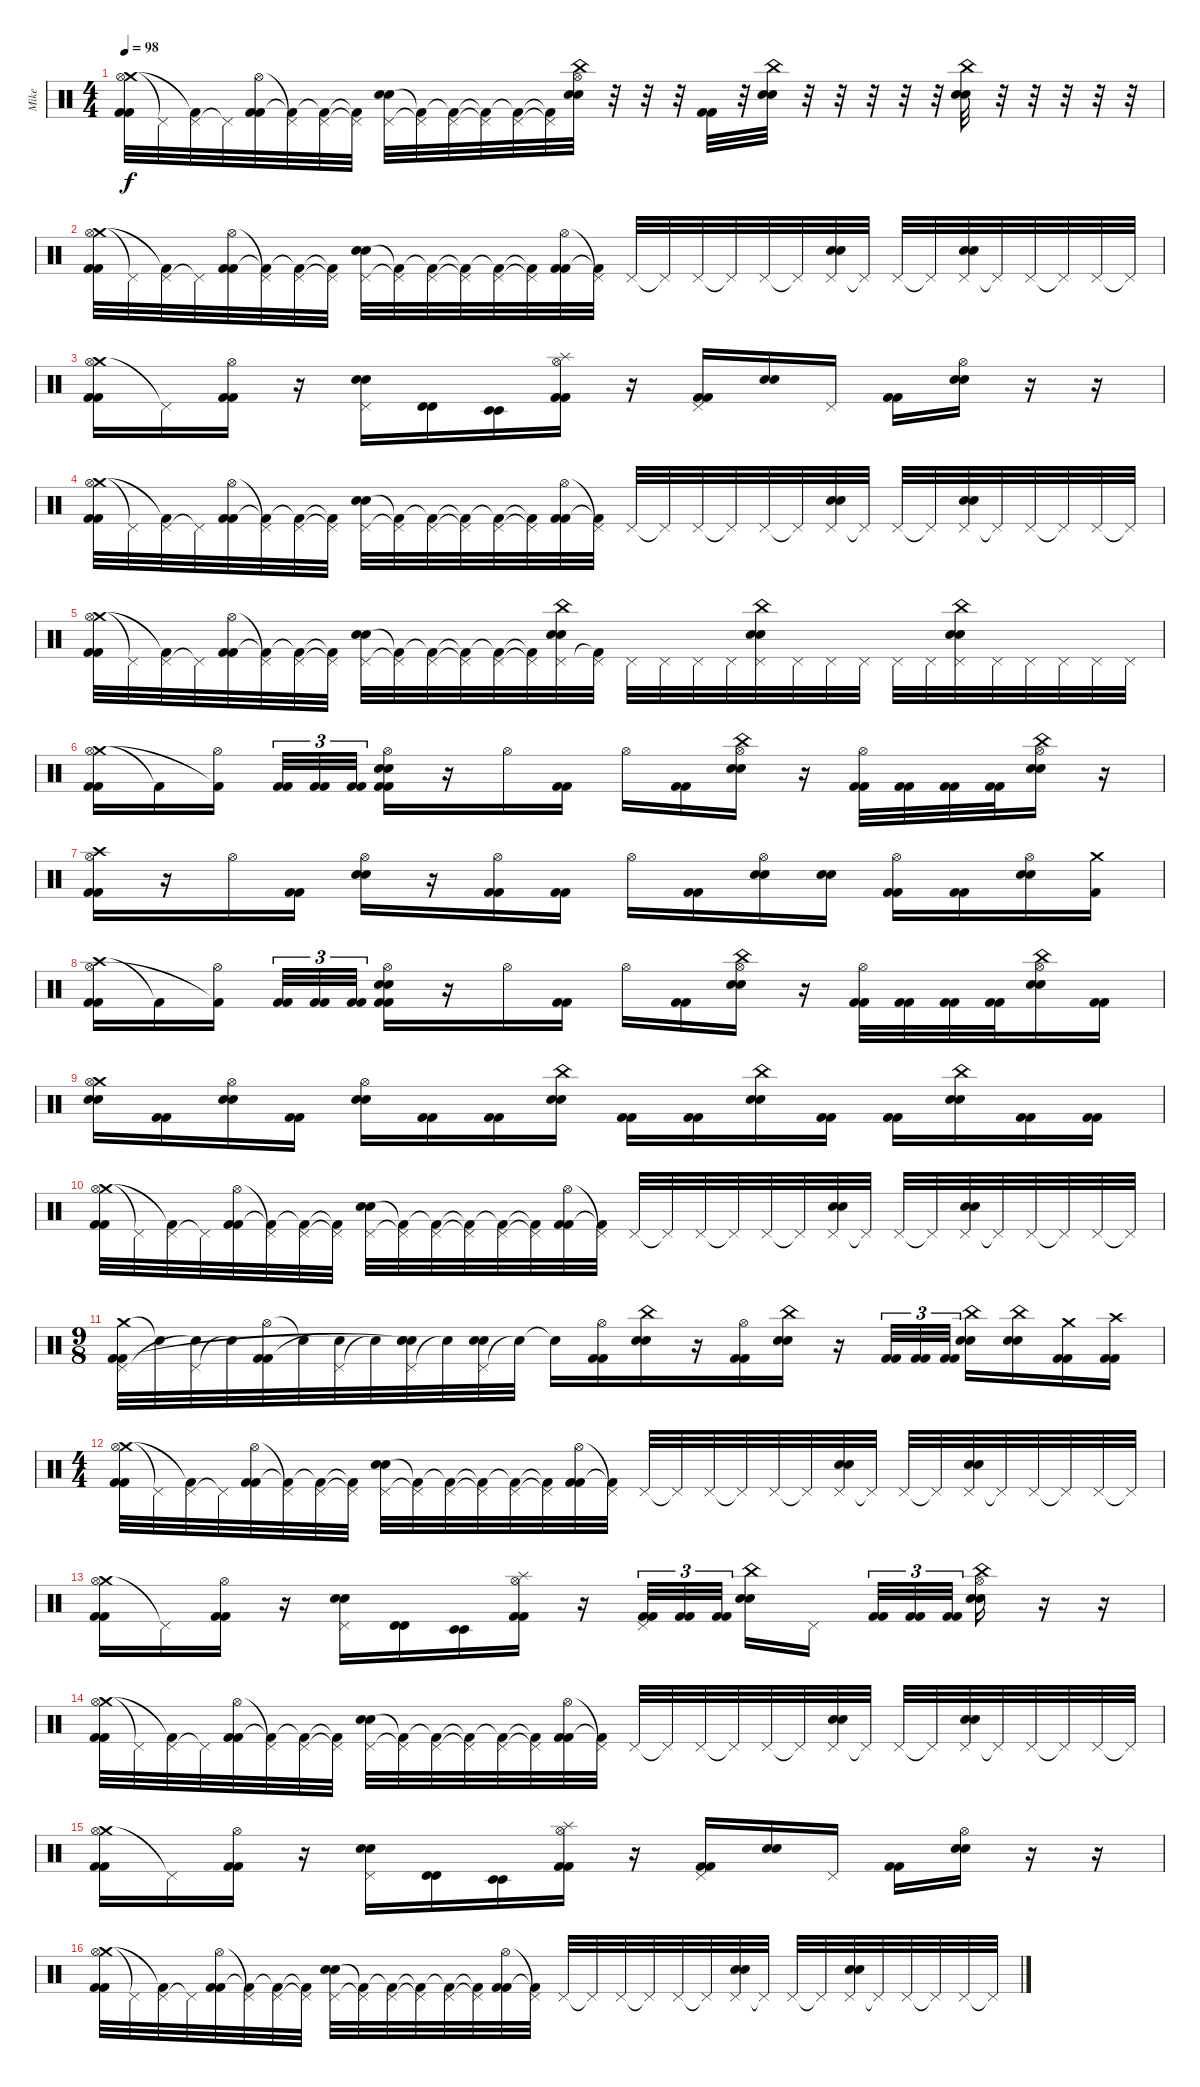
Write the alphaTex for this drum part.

\track ("Mike" "Mike") {instrument percussion}
\staff {score}
\articulation defaults
\ts (4 4)
\tempo 98
\clef neutral
\ks c
("Crash medium (hit)" "Hi-Hat (open)" "Kick (hit) 2" "Kick (hit) 2").32{dy f} "Pedal Hi-Hat (hit)"{t}.32 ("Pedal Hi-Hat (hit)" "Kick (hit) 2"{t}).32 "Pedal Hi-Hat (hit)"{t}.32 ("Hi-Hat (open)" "Kick (hit) 2" "Kick (hit) 2").32 ("Pedal Hi-Hat (hit)"{t} "Kick (hit) 2"{t}).32 ("Pedal Hi-Hat (hit)" "Kick (hit) 2"{t}).32 ("Pedal Hi-Hat (hit)"{t} "Kick (hit) 2"{t}).32 ("Pedal Hi-Hat (hit)" "Electric Snare (hit)" "Electric Snare (hit)").32 ("Pedal Hi-Hat (hit)"{t} "Kick (hit) 2"{t}).32 ("Pedal Hi-Hat (hit)" "Kick (hit) 2"{t}).32 ("Pedal Hi-Hat (hit)"{t} "Kick (hit) 2"{t}).32 ("Pedal Hi-Hat (hit)" "Kick (hit) 2"{t}).32 ("Pedal Hi-Hat (hit)"{t} "Kick (hit) 2"{t}).32 ("China (hit)" "Hi-Hat (open)" "Electric Snare (hit)" "Electric Snare (hit)").32 r.32 r.32 r.32 ("Kick (hit) 2" "Kick (hit) 2").32 r.32 ("China (hit)" "Electric Snare (hit)" "Electric Snare (hit)").32 r.32 r.32 r.32 r.32 r.32 ("China (hit)" "Electric Snare (hit)" "Electric Snare (hit)").32 r.32 r.32 r.32 r.32 r.32 |
("Crash medium (hit)" "Hi-Hat (open)" "Kick (hit) 2" "Kick (hit) 2").32 "Pedal Hi-Hat (hit)"{t}.32 ("Pedal Hi-Hat (hit)" "Kick (hit) 2"{t}).32 "Pedal Hi-Hat (hit)"{t}.32 ("Hi-Hat (open)" "Kick (hit) 2" "Kick (hit) 2").32 ("Pedal Hi-Hat (hit)"{t} "Kick (hit) 2"{t}).32 ("Pedal Hi-Hat (hit)" "Kick (hit) 2"{t}).32 ("Pedal Hi-Hat (hit)"{t} "Kick (hit) 2"{t}).32 ("Pedal Hi-Hat (hit)" "Electric Snare (hit)" "Electric Snare (hit)").32 ("Pedal Hi-Hat (hit)"{t} "Kick (hit) 2"{t}).32 ("Pedal Hi-Hat (hit)" "Kick (hit) 2"{t}).32 ("Pedal Hi-Hat (hit)"{t} "Kick (hit) 2"{t}).32 ("Pedal Hi-Hat (hit)" "Kick (hit) 2"{t}).32 ("Pedal Hi-Hat (hit)"{t} "Kick (hit) 2"{t}).32 ("Hi-Hat (open)" "Kick (hit) 2" "Kick (hit) 2").32 ("Pedal Hi-Hat (hit)"{t} "Kick (hit) 2"{t}).32 "Pedal Hi-Hat (hit)".32 "Pedal Hi-Hat (hit)"{t}.32 "Pedal Hi-Hat (hit)".32 "Pedal Hi-Hat (hit)"{t}.32 "Pedal Hi-Hat (hit)".32 "Pedal Hi-Hat (hit)"{t}.32 ("Pedal Hi-Hat (hit)" "Electric Snare (hit)" "Electric Snare (hit)").32 "Pedal Hi-Hat (hit)"{t}.32 "Pedal Hi-Hat (hit)".32 "Pedal Hi-Hat (hit)"{t}.32 ("Pedal Hi-Hat (hit)" "Electric Snare (hit)" "Electric Snare (hit)").32 "Pedal Hi-Hat (hit)"{t}.32 "Pedal Hi-Hat (hit)".32 "Pedal Hi-Hat (hit)"{t}.32 "Pedal Hi-Hat (hit)".32 "Pedal Hi-Hat (hit)"{t}.32 |
("Crash medium (hit)" "Hi-Hat (open)" "Kick (hit) 2" "Kick (hit) 2").16 "Pedal Hi-Hat (hit)"{t}.16 ("Hi-Hat (open)" "Kick (hit) 2" "Kick (hit) 2").16 r.16 ("Pedal Hi-Hat (hit)" "Electric Snare (hit)" "Electric Snare (hit)").16 ("Timbale high (hit)" "Timbale high (hit)").16 ("Timbale low (hit)" "Timbale low (hit)").16 ("Splash (hit)" "Hi-Hat (open)" "Kick (hit) 2" "Kick (hit) 2").16 r.16 ("Pedal Hi-Hat (hit)" "Kick (hit) 2" "Kick (hit) 2").16 ("Electric Snare (hit)" "Electric Snare (hit)").16 "Pedal Hi-Hat (hit)".16 ("Kick (hit) 2" "Kick (hit) 2").16 ("Hi-Hat (open)" "Electric Snare (hit)" "Electric Snare (hit)").16 r.16 r.16 |
("Crash medium (hit)" "Hi-Hat (open)" "Kick (hit) 2" "Kick (hit) 2").32 "Pedal Hi-Hat (hit)"{t}.32 ("Pedal Hi-Hat (hit)" "Kick (hit) 2"{t}).32 "Pedal Hi-Hat (hit)"{t}.32 ("Hi-Hat (open)" "Kick (hit) 2" "Kick (hit) 2").32 ("Pedal Hi-Hat (hit)"{t} "Kick (hit) 2"{t}).32 ("Pedal Hi-Hat (hit)" "Kick (hit) 2"{t}).32 ("Pedal Hi-Hat (hit)"{t} "Kick (hit) 2"{t}).32 ("Pedal Hi-Hat (hit)" "Electric Snare (hit)" "Electric Snare (hit)").32 ("Pedal Hi-Hat (hit)"{t} "Kick (hit) 2"{t}).32 ("Pedal Hi-Hat (hit)" "Kick (hit) 2"{t}).32 ("Pedal Hi-Hat (hit)"{t} "Kick (hit) 2"{t}).32 ("Pedal Hi-Hat (hit)" "Kick (hit) 2"{t}).32 ("Pedal Hi-Hat (hit)"{t} "Kick (hit) 2"{t}).32 ("Hi-Hat (open)" "Kick (hit) 2" "Kick (hit) 2").32 ("Pedal Hi-Hat (hit)"{t} "Kick (hit) 2"{t}).32 "Pedal Hi-Hat (hit)".32 "Pedal Hi-Hat (hit)"{t}.32 "Pedal Hi-Hat (hit)".32 "Pedal Hi-Hat (hit)"{t}.32 "Pedal Hi-Hat (hit)".32 "Pedal Hi-Hat (hit)"{t}.32 ("Pedal Hi-Hat (hit)" "Electric Snare (hit)" "Electric Snare (hit)").32 "Pedal Hi-Hat (hit)"{t}.32 "Pedal Hi-Hat (hit)".32 "Pedal Hi-Hat (hit)"{t}.32 ("Pedal Hi-Hat (hit)" "Electric Snare (hit)" "Electric Snare (hit)").32 "Pedal Hi-Hat (hit)"{t}.32 "Pedal Hi-Hat (hit)".32 "Pedal Hi-Hat (hit)"{t}.32 "Pedal Hi-Hat (hit)".32 "Pedal Hi-Hat (hit)"{t}.32 |
("Crash medium (hit)" "Hi-Hat (open)" "Kick (hit) 2" "Kick (hit) 2").32 "Pedal Hi-Hat (hit)"{t}.32 ("Pedal Hi-Hat (hit)" "Kick (hit) 2"{t}).32 "Pedal Hi-Hat (hit)"{t}.32 ("Hi-Hat (open)" "Kick (hit) 2" "Kick (hit) 2").32 ("Pedal Hi-Hat (hit)"{t} "Kick (hit) 2"{t}).32 ("Pedal Hi-Hat (hit)" "Kick (hit) 2"{t}).32 ("Pedal Hi-Hat (hit)"{t} "Kick (hit) 2"{t}).32 ("Pedal Hi-Hat (hit)" "Electric Snare (hit)" "Electric Snare (hit)").32 ("Pedal Hi-Hat (hit)"{t} "Kick (hit) 2"{t}).32 ("Pedal Hi-Hat (hit)" "Kick (hit) 2"{t}).32 ("Pedal Hi-Hat (hit)"{t} "Kick (hit) 2"{t}).32 ("Pedal Hi-Hat (hit)" "Kick (hit) 2"{t}).32 ("Pedal Hi-Hat (hit)"{t} "Kick (hit) 2"{t}).32 ("China (hit)" "Pedal Hi-Hat (hit)" "Electric Snare (hit)" "Electric Snare (hit)").32 ("Pedal Hi-Hat (hit)" "Kick (hit) 2"{t}).32 "Pedal Hi-Hat (hit)".32 "Pedal Hi-Hat (hit)".32 "Pedal Hi-Hat (hit)".32 "Pedal Hi-Hat (hit)".32 ("China (hit)" "Pedal Hi-Hat (hit)" "Electric Snare (hit)" "Electric Snare (hit)").32 "Pedal Hi-Hat (hit)".32 "Pedal Hi-Hat (hit)".32 "Pedal Hi-Hat (hit)".32 "Pedal Hi-Hat (hit)".32 "Pedal Hi-Hat (hit)".32 ("China (hit)" "Pedal Hi-Hat (hit)" "Electric Snare (hit)" "Electric Snare (hit)").32 "Pedal Hi-Hat (hit)".32 "Pedal Hi-Hat (hit)".32 "Pedal Hi-Hat (hit)".32 "Pedal Hi-Hat (hit)".32 "Pedal Hi-Hat (hit)".32 |
("Crash medium (hit)" "Hi-Hat (open)" "Kick (hit) 2" "Kick (hit) 2").16 "Kick (hit) 2"{t}.16 ("Hi-Hat (open)" "Kick (hit) 2"{t}).16 ("Kick (hit) 2" "Kick (hit) 2").32{tu (3 2)} ("Kick (hit) 2" "Kick (hit) 2").32{tu (3 2)} ("Kick (hit) 2" "Kick (hit) 2").32{tu (3 2)} ("Hi-Hat (open)" "Electric Snare (hit)" "Electric Snare (hit)" "Kick (hit) 2" "Kick (hit) 2").16 r.16 "Hi-Hat (open)".16 ("Kick (hit) 2" "Kick (hit) 2").16 "Hi-Hat (open)".16 ("Kick (hit) 2" "Kick (hit) 2").16 ("China (hit)" "Hi-Hat (open)" "Electric Snare (hit)" "Electric Snare (hit)").16 r.16 ("Hi-Hat (open)" "Kick (hit) 2" "Kick (hit) 2").32 ("Kick (hit) 2" "Kick (hit) 2").32 ("Kick (hit) 2" "Kick (hit) 2").32 ("Kick (hit) 2" "Kick (hit) 2").32 ("China (hit)" "Hi-Hat (open)" "Electric Snare (hit)" "Electric Snare (hit)").16 r.16 |
("Crash high (hit)" "Hi-Hat (open)" "Kick (hit) 2" "Kick (hit) 2").16 r.16 "Hi-Hat (open)".16 ("Kick (hit) 2" "Kick (hit) 2").16 ("Hi-Hat (open)" "Electric Snare (hit)" "Electric Snare (hit)").16 r.16 ("Hi-Hat (open)" "Kick (hit) 2" "Kick (hit) 2").16 ("Kick (hit) 2" "Kick (hit) 2").16 "Hi-Hat (open)".16 ("Kick (hit) 2" "Kick (hit) 2").16 ("Hi-Hat (open)" "Electric Snare (hit)" "Electric Snare (hit)").16 ("Electric Snare (hit)" "Electric Snare (hit)").16 ("Hi-Hat (open)" "Kick (hit) 2" "Kick (hit) 2").16 ("Kick (hit) 2" "Kick (hit) 2").16 ("Hi-Hat (open)" "Electric Snare (hit)" "Electric Snare (hit)").16 ("Crash medium (hit)" "Kick (hit) 2").16 |
("Crash high (hit)" "Hi-Hat (open)" "Kick (hit) 2" "Kick (hit) 2").16 "Kick (hit) 2"{t}.16 ("Hi-Hat (open)" "Kick (hit) 2"{t}).16 ("Kick (hit) 2" "Kick (hit) 2").32{tu (3 2)} ("Kick (hit) 2" "Kick (hit) 2").32{tu (3 2)} ("Kick (hit) 2" "Kick (hit) 2").32{tu (3 2)} ("Hi-Hat (open)" "Electric Snare (hit)" "Electric Snare (hit)" "Kick (hit) 2" "Kick (hit) 2").16 r.16 "Hi-Hat (open)".16 ("Kick (hit) 2" "Kick (hit) 2").16 "Hi-Hat (open)".16 ("Kick (hit) 2" "Kick (hit) 2").16 ("China (hit)" "Hi-Hat (open)" "Electric Snare (hit)" "Electric Snare (hit)").16 r.16 ("Hi-Hat (open)" "Kick (hit) 2" "Kick (hit) 2").32 ("Kick (hit) 2" "Kick (hit) 2").32 ("Kick (hit) 2" "Kick (hit) 2").32 ("Kick (hit) 2" "Kick (hit) 2").32 ("China (hit)" "Hi-Hat (open)" "Electric Snare (hit)" "Electric Snare (hit)").16 ("Kick (hit) 2" "Kick (hit) 2").16 |
("Crash medium (hit)" "Hi-Hat (open)" "Electric Snare (hit)" "Electric Snare (hit)").16 ("Kick (hit) 2" "Kick (hit) 2").16 ("Hi-Hat (open)" "Electric Snare (hit)" "Electric Snare (hit)").16 ("Kick (hit) 2" "Kick (hit) 2").16 ("Hi-Hat (open)" "Electric Snare (hit)" "Electric Snare (hit)").16 ("Kick (hit) 2" "Kick (hit) 2").16 ("Kick (hit) 2" "Kick (hit) 2").16 ("China (hit)" "Electric Snare (hit)" "Electric Snare (hit)").16 ("Kick (hit) 2" "Kick (hit) 2").16 ("Kick (hit) 2" "Kick (hit) 2").16 ("China (hit)" "Electric Snare (hit)" "Electric Snare (hit)").16 ("Kick (hit) 2" "Kick (hit) 2").16 ("Kick (hit) 2" "Kick (hit) 2").16 ("China (hit)" "Electric Snare (hit)" "Electric Snare (hit)").16 ("Kick (hit) 2" "Kick (hit) 2").16 ("Kick (hit) 2" "Kick (hit) 2").16 |
("Crash medium (hit)" "Hi-Hat (open)" "Kick (hit) 2" "Kick (hit) 2").32 "Pedal Hi-Hat (hit)"{t}.32 ("Pedal Hi-Hat (hit)" "Kick (hit) 2"{t}).32 "Pedal Hi-Hat (hit)"{t}.32 ("Hi-Hat (open)" "Kick (hit) 2" "Kick (hit) 2").32 ("Pedal Hi-Hat (hit)"{t} "Kick (hit) 2"{t}).32 ("Pedal Hi-Hat (hit)" "Kick (hit) 2"{t}).32 ("Pedal Hi-Hat (hit)"{t} "Kick (hit) 2"{t}).32 ("Pedal Hi-Hat (hit)" "Electric Snare (hit)" "Electric Snare (hit)").32 ("Pedal Hi-Hat (hit)"{t} "Kick (hit) 2"{t}).32 ("Pedal Hi-Hat (hit)" "Kick (hit) 2"{t}).32 ("Pedal Hi-Hat (hit)"{t} "Kick (hit) 2"{t}).32 ("Pedal Hi-Hat (hit)" "Kick (hit) 2"{t}).32 ("Pedal Hi-Hat (hit)"{t} "Kick (hit) 2"{t}).32 ("Hi-Hat (open)" "Kick (hit) 2" "Kick (hit) 2").32 ("Pedal Hi-Hat (hit)"{t} "Kick (hit) 2"{t}).32 "Pedal Hi-Hat (hit)".32 "Pedal Hi-Hat (hit)"{t}.32 "Pedal Hi-Hat (hit)".32 "Pedal Hi-Hat (hit)"{t}.32 "Pedal Hi-Hat (hit)".32 "Pedal Hi-Hat (hit)"{t}.32 ("Pedal Hi-Hat (hit)" "Electric Snare (hit)" "Electric Snare (hit)").32 "Pedal Hi-Hat (hit)"{t}.32 "Pedal Hi-Hat (hit)".32 "Pedal Hi-Hat (hit)"{t}.32 ("Pedal Hi-Hat (hit)" "Electric Snare (hit)" "Electric Snare (hit)").32 "Pedal Hi-Hat (hit)"{t}.32 "Pedal Hi-Hat (hit)".32 "Pedal Hi-Hat (hit)"{t}.32 "Pedal Hi-Hat (hit)".32 "Pedal Hi-Hat (hit)"{t}.32 |
\ts (9 8)
("Crash medium (hit)" "Pedal Hi-Hat (hit)" "Kick (hit) 2" "Kick (hit) 2").32 "Snare (hit)"{t}.32 ("Pedal Hi-Hat (hit)" "Snare (hit)"{t}).32 "Snare (hit)"{t}.32 ("Hi-Hat (open)" "Kick (hit) 2" "Kick (hit) 2").32 "Snare (hit)"{t}.32 ("Pedal Hi-Hat (hit)" "Snare (hit)"{t}).32 "Snare (hit)"{t}.32 ("Pedal Hi-Hat (hit)" "Electric Snare (hit)" "Electric Snare (hit)" "Snare (hit)"{t}).32 "Electric Snare (hit)"{t}.32 ("Pedal Hi-Hat (hit)" "Electric Snare (hit)" "Electric Snare (hit)").32 "Snare (hit)"{t}.32 "Snare (hit)"{t}.16 ("Hi-Hat (open)" "Kick (hit) 2" "Kick (hit) 2").16 ("China (hit)" "Electric Snare (hit)" "Electric Snare (hit)").16 r.16 ("Hi-Hat (open)" "Kick (hit) 2" "Kick (hit) 2").16 ("China (hit)" "Electric Snare (hit)" "Electric Snare (hit)").16 r.16 ("Kick (hit) 2" "Kick (hit) 2").32{tu (3 2)} ("Kick (hit) 2" "Kick (hit) 2").32{tu (3 2)} ("Kick (hit) 2" "Kick (hit) 2").32{tu (3 2)} ("China (hit)" "Electric Snare (hit)" "Electric Snare (hit)").16 ("China (hit)" "Electric Snare (hit)" "Electric Snare (hit)").16 ("Crash medium (hit)" "Kick (hit) 2" "Kick (hit) 2").16 ("Crash high (hit)" "Kick (hit) 2" "Kick (hit) 2").16 |
\ts (4 4)
("Crash medium (hit)" "Hi-Hat (open)" "Kick (hit) 2" "Kick (hit) 2").32 "Pedal Hi-Hat (hit)"{t}.32 ("Pedal Hi-Hat (hit)" "Kick (hit) 2"{t}).32 "Pedal Hi-Hat (hit)"{t}.32 ("Hi-Hat (open)" "Kick (hit) 2" "Kick (hit) 2").32 ("Pedal Hi-Hat (hit)"{t} "Kick (hit) 2"{t}).32 ("Pedal Hi-Hat (hit)" "Kick (hit) 2"{t}).32 ("Pedal Hi-Hat (hit)"{t} "Kick (hit) 2"{t}).32 ("Pedal Hi-Hat (hit)" "Electric Snare (hit)" "Electric Snare (hit)").32 ("Pedal Hi-Hat (hit)"{t} "Kick (hit) 2"{t}).32 ("Pedal Hi-Hat (hit)" "Kick (hit) 2"{t}).32 ("Pedal Hi-Hat (hit)"{t} "Kick (hit) 2"{t}).32 ("Pedal Hi-Hat (hit)" "Kick (hit) 2"{t}).32 ("Pedal Hi-Hat (hit)"{t} "Kick (hit) 2"{t}).32 ("Hi-Hat (open)" "Kick (hit) 2" "Kick (hit) 2").32 ("Pedal Hi-Hat (hit)"{t} "Kick (hit) 2"{t}).32 "Pedal Hi-Hat (hit)".32 "Pedal Hi-Hat (hit)"{t}.32 "Pedal Hi-Hat (hit)".32 "Pedal Hi-Hat (hit)"{t}.32 "Pedal Hi-Hat (hit)".32 "Pedal Hi-Hat (hit)"{t}.32 ("Pedal Hi-Hat (hit)" "Electric Snare (hit)" "Electric Snare (hit)").32 "Pedal Hi-Hat (hit)"{t}.32 "Pedal Hi-Hat (hit)".32 "Pedal Hi-Hat (hit)"{t}.32 ("Pedal Hi-Hat (hit)" "Electric Snare (hit)" "Electric Snare (hit)").32 "Pedal Hi-Hat (hit)"{t}.32 "Pedal Hi-Hat (hit)".32 "Pedal Hi-Hat (hit)"{t}.32 "Pedal Hi-Hat (hit)".32 "Pedal Hi-Hat (hit)"{t}.32 |
("Crash medium (hit)" "Hi-Hat (open)" "Kick (hit) 2" "Kick (hit) 2").16 "Pedal Hi-Hat (hit)"{t}.16 ("Hi-Hat (open)" "Kick (hit) 2" "Kick (hit) 2").16 r.16 ("Pedal Hi-Hat (hit)" "Electric Snare (hit)" "Electric Snare (hit)").16 ("Timbale high (hit)" "Timbale high (hit)").16 ("Timbale low (hit)" "Timbale low (hit)").16 ("Splash (hit)" "Hi-Hat (open)" "Kick (hit) 2" "Kick (hit) 2").16 r.16 ("Pedal Hi-Hat (hit)" "Kick (hit) 2" "Kick (hit) 2").32{tu (3 2)} ("Kick (hit) 2" "Kick (hit) 2").32{tu (3 2)} ("Kick (hit) 2" "Kick (hit) 2").32{tu (3 2)} ("China (hit)" "Electric Snare (hit)" "Electric Snare (hit)").16 "Pedal Hi-Hat (hit)".16 ("Kick (hit) 2" "Kick (hit) 2").32{tu (3 2)} ("Kick (hit) 2" "Kick (hit) 2").32{tu (3 2)} ("Kick (hit) 2" "Kick (hit) 2").32{tu (3 2)} ("China (hit)" "Hi-Hat (open)" "Electric Snare (hit)" "Electric Snare (hit)").16 r.16 r.16 |
("Crash medium (hit)" "Hi-Hat (open)" "Kick (hit) 2" "Kick (hit) 2").32 "Pedal Hi-Hat (hit)"{t}.32 ("Pedal Hi-Hat (hit)" "Kick (hit) 2"{t}).32 "Pedal Hi-Hat (hit)"{t}.32 ("Hi-Hat (open)" "Kick (hit) 2" "Kick (hit) 2").32 ("Pedal Hi-Hat (hit)"{t} "Kick (hit) 2"{t}).32 ("Pedal Hi-Hat (hit)" "Kick (hit) 2"{t}).32 ("Pedal Hi-Hat (hit)"{t} "Kick (hit) 2"{t}).32 ("Pedal Hi-Hat (hit)" "Electric Snare (hit)" "Electric Snare (hit)").32 ("Pedal Hi-Hat (hit)"{t} "Kick (hit) 2"{t}).32 ("Pedal Hi-Hat (hit)" "Kick (hit) 2"{t}).32 ("Pedal Hi-Hat (hit)"{t} "Kick (hit) 2"{t}).32 ("Pedal Hi-Hat (hit)" "Kick (hit) 2"{t}).32 ("Pedal Hi-Hat (hit)"{t} "Kick (hit) 2"{t}).32 ("Hi-Hat (open)" "Kick (hit) 2" "Kick (hit) 2").32 ("Pedal Hi-Hat (hit)"{t} "Kick (hit) 2"{t}).32 "Pedal Hi-Hat (hit)".32 "Pedal Hi-Hat (hit)"{t}.32 "Pedal Hi-Hat (hit)".32 "Pedal Hi-Hat (hit)"{t}.32 "Pedal Hi-Hat (hit)".32 "Pedal Hi-Hat (hit)"{t}.32 ("Pedal Hi-Hat (hit)" "Electric Snare (hit)" "Electric Snare (hit)").32 "Pedal Hi-Hat (hit)"{t}.32 "Pedal Hi-Hat (hit)".32 "Pedal Hi-Hat (hit)"{t}.32 ("Pedal Hi-Hat (hit)" "Electric Snare (hit)" "Electric Snare (hit)").32 "Pedal Hi-Hat (hit)"{t}.32 "Pedal Hi-Hat (hit)".32 "Pedal Hi-Hat (hit)"{t}.32 "Pedal Hi-Hat (hit)".32 "Pedal Hi-Hat (hit)"{t}.32 |
("Crash medium (hit)" "Hi-Hat (open)" "Kick (hit) 2" "Kick (hit) 2").16 "Pedal Hi-Hat (hit)"{t}.16 ("Hi-Hat (open)" "Kick (hit) 2" "Kick (hit) 2").16 r.16 ("Pedal Hi-Hat (hit)" "Electric Snare (hit)" "Electric Snare (hit)").16 ("Timbale high (hit)" "Timbale high (hit)").16 ("Timbale low (hit)" "Timbale low (hit)").16 ("Splash (hit)" "Hi-Hat (open)" "Kick (hit) 2" "Kick (hit) 2").16 r.16 ("Pedal Hi-Hat (hit)" "Kick (hit) 2" "Kick (hit) 2").16 ("Electric Snare (hit)" "Electric Snare (hit)").16 "Pedal Hi-Hat (hit)".16 ("Kick (hit) 2" "Kick (hit) 2").16 ("Hi-Hat (open)" "Electric Snare (hit)" "Electric Snare (hit)").16 r.16 r.16 |
("Crash medium (hit)" "Hi-Hat (open)" "Kick (hit) 2" "Kick (hit) 2").32 "Pedal Hi-Hat (hit)"{t}.32 ("Pedal Hi-Hat (hit)" "Kick (hit) 2"{t}).32 "Pedal Hi-Hat (hit)"{t}.32 ("Hi-Hat (open)" "Kick (hit) 2" "Kick (hit) 2").32 ("Pedal Hi-Hat (hit)"{t} "Kick (hit) 2"{t}).32 ("Pedal Hi-Hat (hit)" "Kick (hit) 2"{t}).32 ("Pedal Hi-Hat (hit)"{t} "Kick (hit) 2"{t}).32 ("Pedal Hi-Hat (hit)" "Electric Snare (hit)" "Electric Snare (hit)").32 ("Pedal Hi-Hat (hit)"{t} "Kick (hit) 2"{t}).32 ("Pedal Hi-Hat (hit)" "Kick (hit) 2"{t}).32 ("Pedal Hi-Hat (hit)"{t} "Kick (hit) 2"{t}).32 ("Pedal Hi-Hat (hit)" "Kick (hit) 2"{t}).32 ("Pedal Hi-Hat (hit)"{t} "Kick (hit) 2"{t}).32 ("Hi-Hat (open)" "Kick (hit) 2" "Kick (hit) 2").32 ("Pedal Hi-Hat (hit)"{t} "Kick (hit) 2"{t}).32 "Pedal Hi-Hat (hit)".32 "Pedal Hi-Hat (hit)"{t}.32 "Pedal Hi-Hat (hit)".32 "Pedal Hi-Hat (hit)"{t}.32 "Pedal Hi-Hat (hit)".32 "Pedal Hi-Hat (hit)"{t}.32 ("Pedal Hi-Hat (hit)" "Electric Snare (hit)" "Electric Snare (hit)").32 "Pedal Hi-Hat (hit)"{t}.32 "Pedal Hi-Hat (hit)".32 "Pedal Hi-Hat (hit)"{t}.32 ("Pedal Hi-Hat (hit)" "Electric Snare (hit)" "Electric Snare (hit)").32 "Pedal Hi-Hat (hit)"{t}.32 "Pedal Hi-Hat (hit)".32 "Pedal Hi-Hat (hit)"{t}.32 "Pedal Hi-Hat (hit)".32 "Pedal Hi-Hat (hit)"{t}.32
